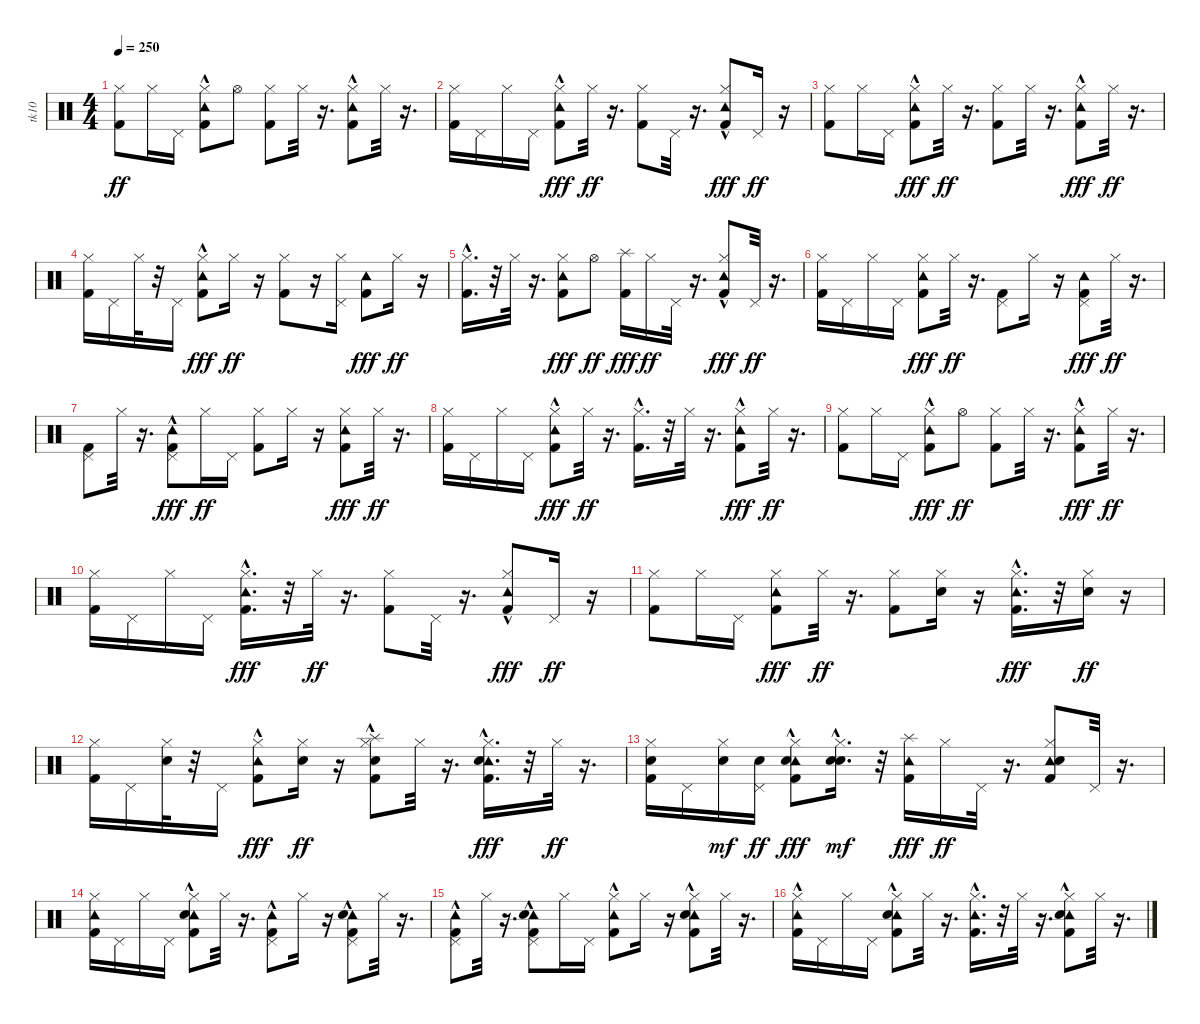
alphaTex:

\track ("tk10" "tk10") {instrument percussion}
\staff {score}
\articulation defaults
\ts (4 4)
\tempo 250
\clef neutral
\ks c
("Kick (hit) 2" "Hi-Hat (closed)").8{dy ff} "Hi-Hat (closed)".16 "Pedal Hi-Hat (hit)".16 ("Tambourine (hit)"{hac} "Kick (hit) 2" "Hi-Hat (closed)").8 "Hi-Hat (open)".8 ("Kick (hit) 2" "Hi-Hat (closed)").8 "Hi-Hat (closed)".32 r.16{d} ("Tambourine (hit)"{hac} "Kick (hit) 2" "Hi-Hat (closed)").8 "Hi-Hat (closed)".32 r.16{d} |
("Kick (hit) 2" "Hi-Hat (closed)").16 "Pedal Hi-Hat (hit)".16 "Hi-Hat (closed)".16 "Pedal Hi-Hat (hit)".16 ("Kick (hit) 2"{hac} "Hi-Hat (closed)" "Tambourine (hit)"{hac}).8{dy fff} "Hi-Hat (closed)".32{dy ff} r.16{d} ("Kick (hit) 2" "Hi-Hat (closed)").8 "Pedal Hi-Hat (hit)".32 r.16{d} ("Kick (hit) 2" "Hi-Hat (closed)" "Tambourine (hit)"{hac}).8{dy fff} "Pedal Hi-Hat (hit)".16{dy ff} r.16 |
("Kick (hit) 2" "Hi-Hat (closed)").8 "Hi-Hat (closed)".16 "Pedal Hi-Hat (hit)".16 ("Kick (hit) 2" "Hi-Hat (closed)" "Tambourine (hit)"{hac}).8{dy fff} "Hi-Hat (closed)".32{dy ff} r.16{d} ("Kick (hit) 2" "Hi-Hat (closed)").8 "Hi-Hat (closed)".32 r.16{d} ("Kick (hit) 2"{hac} "Hi-Hat (closed)" "Tambourine (hit)"{hac}).8{dy fff} "Hi-Hat (closed)".32{dy ff} r.16{d} |
("Kick (hit) 2" "Hi-Hat (closed)").16 "Pedal Hi-Hat (hit)".16 "Hi-Hat (closed)".32 r.32 "Pedal Hi-Hat (hit)".16 ("Kick (hit) 2" "Hi-Hat (closed)" "Tambourine (hit)"{hac}).8{dy fff} "Hi-Hat (closed)".16{dy ff} r.16 ("Kick (hit) 2" "Hi-Hat (closed)").8 r.16 ("Hi-Hat (closed)" "Pedal Hi-Hat (hit)").16 ("Kick (hit) 2" "Tambourine (hit)").8{dy fff} "Hi-Hat (closed)".16{dy ff} r.16 |
("Kick (hit) 2"{hac} "Hi-Hat (closed)").16{d} r.32 "Hi-Hat (closed)".32 r.16{d} ("Kick (hit) 2" "Hi-Hat (closed)" "Tambourine (hit)").8{dy fff} "Hi-Hat (open)".8{dy ff} ("Kick (hit) 2" "Splash (hit)").16{dy fff} "Hi-Hat (closed)".16{dy ff} "Pedal Hi-Hat (hit)".32 r.16{d} ("Kick (hit) 2" "Hi-Hat (closed)" "Tambourine (hit)"{hac}).8{dy fff} "Pedal Hi-Hat (hit)".32{dy ff} r.16{d} |
("Kick (hit) 2" "Hi-Hat (closed)").16 "Pedal Hi-Hat (hit)".16 "Hi-Hat (closed)".16 "Pedal Hi-Hat (hit)".16 ("Kick (hit) 2" "Hi-Hat (closed)" "Tambourine (hit)").8{dy fff} "Hi-Hat (closed)".32{dy ff} r.16{d} ("Kick (hit) 2" "Pedal Hi-Hat (hit)").8 "Hi-Hat (closed)".16 r.16 ("Kick (hit) 2" "Pedal Hi-Hat (hit)" "Tambourine (hit)").8{dy fff} "Hi-Hat (closed)".32{dy ff} r.16{d} |
("Kick (hit) 2" "Pedal Hi-Hat (hit)").8 "Hi-Hat (closed)".32 r.16{d} ("Kick (hit) 2" "Pedal Hi-Hat (hit)" "Tambourine (hit)"{hac}).8{dy fff} "Hi-Hat (closed)".16{dy ff} "Pedal Hi-Hat (hit)".16 ("Kick (hit) 2" "Hi-Hat (closed)").8 "Hi-Hat (closed)".16 r.16 ("Kick (hit) 2" "Hi-Hat (closed)" "Tambourine (hit)").8{dy fff} "Hi-Hat (closed)".32{dy ff} r.16{d} |
("Kick (hit) 2" "Hi-Hat (closed)").16 "Pedal Hi-Hat (hit)".16 "Hi-Hat (closed)".16 "Pedal Hi-Hat (hit)".16 ("Kick (hit) 2" "Hi-Hat (closed)" "Tambourine (hit)"{hac}).8{dy fff} "Hi-Hat (closed)".32{dy ff} r.16{d} ("Kick (hit) 2"{hac} "Hi-Hat (closed)").16{d} r.32 "Hi-Hat (closed)".32 r.16{d} ("Kick (hit) 2" "Hi-Hat (closed)" "Tambourine (hit)"{hac}).8{dy fff} "Hi-Hat (closed)".32{dy ff} r.16{d} |
("Kick (hit) 2" "Hi-Hat (closed)").8 "Hi-Hat (closed)".16 "Pedal Hi-Hat (hit)".16 ("Kick (hit) 2" "Hi-Hat (closed)" "Tambourine (hit)"{hac}).8{dy fff} "Hi-Hat (open)".8{dy ff} ("Kick (hit) 2" "Hi-Hat (closed)").8 "Hi-Hat (closed)".32 r.16{d} ("Kick (hit) 2" "Hi-Hat (closed)" "Tambourine (hit)"{hac}).8{dy fff} "Hi-Hat (closed)".32{dy ff} r.16{d} |
("Kick (hit) 2" "Hi-Hat (closed)").16 "Pedal Hi-Hat (hit)".16 "Hi-Hat (closed)".16 "Pedal Hi-Hat (hit)".16 ("Kick (hit) 2"{hac} "Hi-Hat (closed)" "Tambourine (hit)"{hac}).16{d dy fff} r.32 "Hi-Hat (closed)".32{dy ff} r.16{d} ("Kick (hit) 2" "Hi-Hat (closed)").8 "Pedal Hi-Hat (hit)".32 r.16{d} ("Kick (hit) 2" "Hi-Hat (closed)" "Tambourine (hit)"{hac}).8{dy fff} "Pedal Hi-Hat (hit)".16{dy ff} r.16 |
("Kick (hit) 2" "Hi-Hat (closed)").8 "Hi-Hat (closed)".16 "Pedal Hi-Hat (hit)".16 ("Kick (hit) 2" "Hi-Hat (closed)" "Tambourine (hit)").8{dy fff} "Hi-Hat (closed)".32{dy ff} r.16{d} ("Kick (hit) 2" "Hi-Hat (closed)").8 ("Hi-Hat (closed)" "Electric Snare (hit)").16 r.16 ("Kick (hit) 2"{hac} "Hi-Hat (closed)" "Tambourine (hit)"{hac}).16{d dy fff} r.32 ("Hi-Hat (closed)" "Electric Snare (hit)").16{dy ff} r.16 |
("Kick (hit) 2" "Hi-Hat (closed)").16 "Pedal Hi-Hat (hit)".16 ("Hi-Hat (closed)" "Electric Snare (hit)").32 r.32 "Pedal Hi-Hat (hit)".16 ("Kick (hit) 2" "Hi-Hat (closed)" "Tambourine (hit)"{hac}).8{dy fff} ("Hi-Hat (closed)" "Electric Snare (hit)").16{dy ff} r.16 ("Kick (hit) 2" "Hi-Hat (closed)" "Electric Snare (hit)" "Splash (hit)"{hac}).8 "Hi-Hat (closed)".32 r.16{d} ("Kick (hit) 2"{hac} "Hi-Hat (closed)" "Tambourine (hit)"{hac} "Electric Snare (hit)").16{d dy fff} r.32 "Hi-Hat (closed)".32{dy ff} r.16{d} |
("Kick (hit) 2" "Hi-Hat (closed)" "Electric Snare (hit)").16 "Pedal Hi-Hat (hit)".16 ("Hi-Hat (closed)" "Electric Snare (hit)").16{dy mf} ("Pedal Hi-Hat (hit)" "Electric Snare (hit)").16{dy ff} ("Kick (hit) 2" "Hi-Hat (closed)" "Tambourine (hit)"{hac} "Electric Snare (hit)").8{dy fff} ("Hi-Hat (closed)" "Electric Snare (hit)"{hac} "Electric Snare (hit)"{hac}).16{d dy mf} r.32 ("Kick (hit) 2" "Tambourine (hit)" "Splash (hit)").16{dy fff} "Hi-Hat (closed)".16{dy ff} "Pedal Hi-Hat (hit)".32 r.16{d} ("Kick (hit) 2" "Tambourine (hit)" "Hi-Hat (closed)" "Electric Snare (hit)").8 "Pedal Hi-Hat (hit)".32 r.16{d} |
("Kick (hit) 2" "Tambourine (hit)" "Hi-Hat (closed)").16 "Pedal Hi-Hat (hit)".16 "Hi-Hat (closed)".16 "Pedal Hi-Hat (hit)".16 ("Kick (hit) 2" "Tambourine (hit)"{hac} "Hi-Hat (closed)" "Electric Snare (hit)"{hac}).8 "Hi-Hat (closed)".32 r.16{d} ("Kick (hit) 2" "Tambourine (hit)"{hac} "Pedal Hi-Hat (hit)").8 "Hi-Hat (closed)".16 r.16 ("Kick (hit) 2" "Tambourine (hit)"{hac} "Pedal Hi-Hat (hit)" "Electric Snare (hit)"{hac}).8 "Hi-Hat (closed)".32 r.16{d} |
("Kick (hit) 2" "Tambourine (hit)"{hac} "Pedal Hi-Hat (hit)").8 "Hi-Hat (closed)".32 r.16{d} ("Kick (hit) 2" "Tambourine (hit)"{hac} "Pedal Hi-Hat (hit)" "Electric Snare (hit)"{hac}).8 "Hi-Hat (closed)".16 "Pedal Hi-Hat (hit)".16 ("Kick (hit) 2" "Tambourine (hit)"{hac} "Hi-Hat (closed)").8 "Hi-Hat (closed)".16 r.16 ("Kick (hit) 2" "Tambourine (hit)"{hac} "Hi-Hat (closed)" "Electric Snare (hit)"{hac}).8 "Hi-Hat (closed)".32 r.16{d} |
("Kick (hit) 2" "Tambourine (hit)"{hac} "Hi-Hat (closed)").16 "Pedal Hi-Hat (hit)".16 "Hi-Hat (closed)".16 "Pedal Hi-Hat (hit)".16 ("Kick (hit) 2" "Tambourine (hit)"{hac} "Hi-Hat (closed)" "Electric Snare (hit)"{hac}).8 "Hi-Hat (closed)".32 r.16{d} ("Kick (hit) 2"{hac} "Tambourine (hit)"{hac} "Hi-Hat (closed)").16{d} r.32 "Hi-Hat (closed)".32 r.16{d} ("Kick (hit) 2" "Tambourine (hit)" "Hi-Hat (closed)" "Electric Snare (hit)"{hac}).8 "Hi-Hat (closed)".32 r.16{d}
